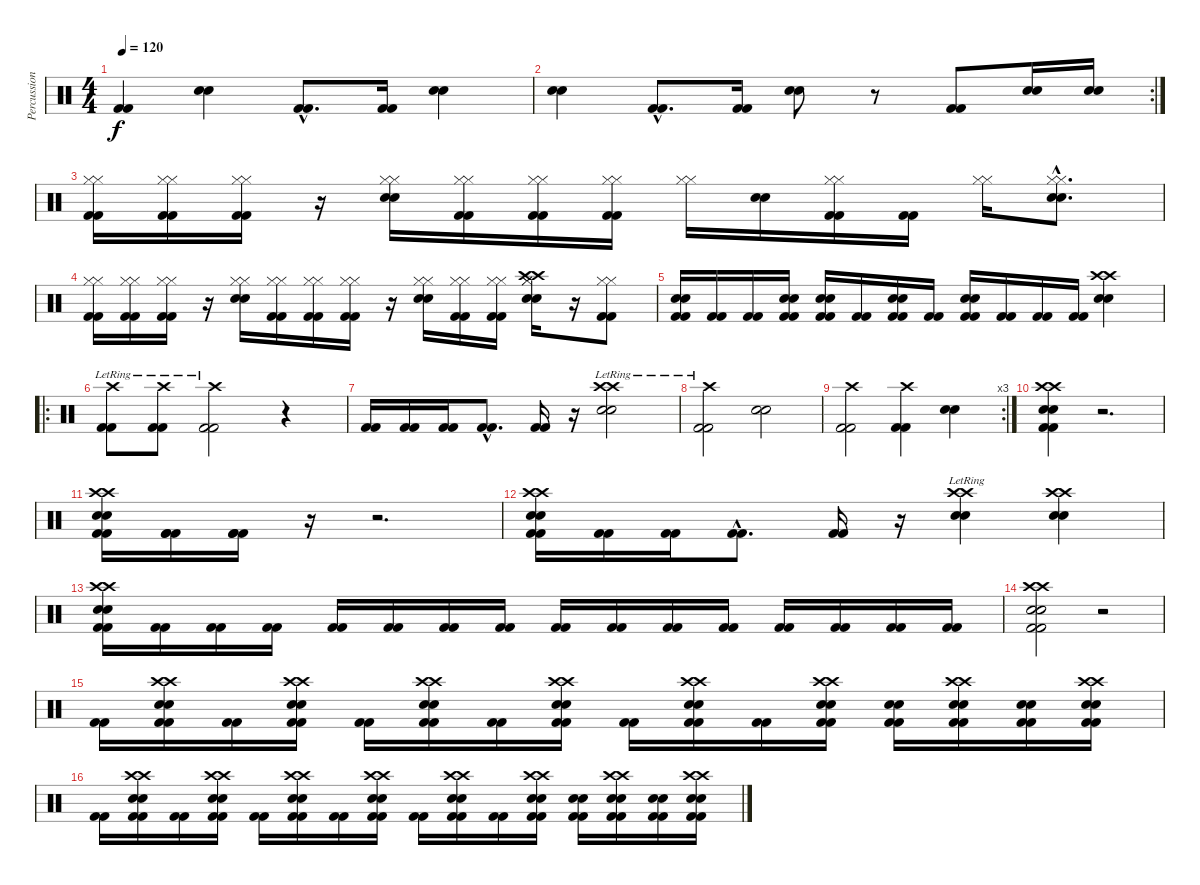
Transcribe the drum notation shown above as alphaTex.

\track ("Percussions" "Percussion") {instrument percussion}
\staff {score}
\articulation defaults
\ts (4 4)
\tempo 120
\clef neutral
\ks c
("Kick (hit) 2" "Kick (hit) 2").4{dy f} ("Electric Snare (hit)" "Electric Snare (hit)").4 ("Kick (hit) 2"{hac} "Kick (hit) 2"{hac}).8{d} ("Kick (hit) 2" "Kick (hit) 2").16 ("Electric Snare (hit)" "Electric Snare (hit)").4 |
\rc 2
("Electric Snare (hit)" "Electric Snare (hit)").4 ("Kick (hit) 2"{hac} "Kick (hit) 2"{hac}).8{d} ("Kick (hit) 2" "Kick (hit) 2").16 ("Electric Snare (hit)" "Electric Snare (hit)").8 r.8 ("Kick (hit) 2" "Kick (hit) 2").8 ("Electric Snare (hit)" "Electric Snare (hit)").16 ("Electric Snare (hit)" "Electric Snare (hit)").16 |
("Kick (hit) 2" "Kick (hit) 2" "Hi-Hat (closed)" "Hi-Hat (closed)").16 ("Kick (hit) 2" "Kick (hit) 2" "Hi-Hat (closed)" "Hi-Hat (closed)").16 ("Kick (hit) 2" "Kick (hit) 2" "Hi-Hat (closed)" "Hi-Hat (closed)").16 r.16 ("Electric Snare (hit)" "Electric Snare (hit)" "Hi-Hat (closed)" "Hi-Hat (closed)").16 ("Kick (hit) 2" "Kick (hit) 2" "Hi-Hat (closed)" "Hi-Hat (closed)").16 ("Kick (hit) 2" "Kick (hit) 2" "Hi-Hat (closed)" "Hi-Hat (closed)").16 ("Kick (hit) 2" "Kick (hit) 2" "Hi-Hat (closed)" "Hi-Hat (closed)").16 ("Hi-Hat (closed)" "Hi-Hat (closed)").16 ("Electric Snare (hit)" "Electric Snare (hit)").16 ("Kick (hit) 2" "Kick (hit) 2" "Hi-Hat (closed)" "Hi-Hat (closed)").16 ("Kick (hit) 2" "Kick (hit) 2").16 ("Hi-Hat (closed)" "Hi-Hat (closed)").16 ("Electric Snare (hit)"{hac} "Electric Snare (hit)"{hac} "Hi-Hat (closed)"{hac} "Hi-Hat (closed)"{hac}).8{d} |
("Kick (hit) 2" "Kick (hit) 2" "Hi-Hat (closed)" "Hi-Hat (closed)").16 ("Kick (hit) 2" "Kick (hit) 2" "Hi-Hat (closed)" "Hi-Hat (closed)").16 ("Kick (hit) 2" "Kick (hit) 2" "Hi-Hat (closed)" "Hi-Hat (closed)").16 r.16 ("Electric Snare (hit)" "Electric Snare (hit)" "Hi-Hat (closed)" "Hi-Hat (closed)").16 ("Kick (hit) 2" "Kick (hit) 2" "Hi-Hat (closed)" "Hi-Hat (closed)").16 ("Kick (hit) 2" "Kick (hit) 2" "Hi-Hat (closed)" "Hi-Hat (closed)").16 ("Kick (hit) 2" "Kick (hit) 2" "Hi-Hat (closed)" "Hi-Hat (closed)").16 r.16 ("Electric Snare (hit)" "Electric Snare (hit)" "Hi-Hat (closed)" "Hi-Hat (closed)").16 ("Kick (hit) 2" "Kick (hit) 2" "Hi-Hat (closed)" "Hi-Hat (closed)").16 ("Kick (hit) 2" "Kick (hit) 2" "Hi-Hat (closed)" "Hi-Hat (closed)").16 ("Electric Snare (hit)" "Electric Snare (hit)" "Crash high (hit)" "Crash high (hit)" "Hi-Hat (closed)" "Hi-Hat (closed)").16 r.16 ("Kick (hit) 2" "Kick (hit) 2" "Hi-Hat (closed)" "Hi-Hat (closed)").8 |
("Kick (hit) 2" "Kick (hit) 2" "Electric Snare (hit)" "Electric Snare (hit)").16 ("Kick (hit) 2" "Kick (hit) 2").16 ("Kick (hit) 2" "Kick (hit) 2").16 ("Kick (hit) 2" "Kick (hit) 2" "Electric Snare (hit)" "Electric Snare (hit)").16 ("Kick (hit) 2" "Kick (hit) 2" "Electric Snare (hit)" "Electric Snare (hit)").16 ("Kick (hit) 2" "Kick (hit) 2").16 ("Kick (hit) 2" "Kick (hit) 2" "Electric Snare (hit)" "Electric Snare (hit)").16 ("Kick (hit) 2" "Kick (hit) 2").16 ("Kick (hit) 2" "Kick (hit) 2" "Electric Snare (hit)" "Electric Snare (hit)").16 ("Kick (hit) 2" "Kick (hit) 2").16 ("Kick (hit) 2" "Kick (hit) 2").16 ("Kick (hit) 2" "Kick (hit) 2").16 ("Electric Snare (hit)" "Electric Snare (hit)" "Crash high (hit)" "Crash high (hit)").4 |
\ro
("Crash high (hit)"{lr} "Kick (hit) 2" "Kick (hit) 2").8 ("Crash high (hit)"{lr} "Kick (hit) 2" "Kick (hit) 2").8 ("Crash high (hit)"{lr} "Kick (hit) 2" "Kick (hit) 2").2 r.4 |
("Kick (hit) 2" "Kick (hit) 2").16 ("Kick (hit) 2" "Kick (hit) 2").16 ("Kick (hit) 2" "Kick (hit) 2").16 ("Kick (hit) 2"{hac} "Kick (hit) 2"{hac}).8{d} ("Kick (hit) 2" "Kick (hit) 2").16 r.16 ("Electric Snare (hit)" "Electric Snare (hit)" "Crash high (hit)"{lr} "Crash high (hit)"{lr}).2 |
("Crash high (hit)"{lr} "Kick (hit) 2" "Kick (hit) 2").2 ("Electric Snare (hit)" "Electric Snare (hit)").2 |
\rc 3
("Crash high (hit)" "Kick (hit) 2" "Kick (hit) 2").2 ("Crash high (hit)" "Kick (hit) 2" "Kick (hit) 2").4 ("Electric Snare (hit)" "Electric Snare (hit)").4 |
("Kick (hit) 2" "Kick (hit) 2" "Crash high (hit)" "Crash high (hit)" "Electric Snare (hit)" "Electric Snare (hit)").4 r.2{d} |
("Kick (hit) 2" "Kick (hit) 2" "Electric Snare (hit)" "Electric Snare (hit)" "Crash high (hit)" "Crash high (hit)").16 ("Kick (hit) 2" "Kick (hit) 2" "Kick (hit) 2").16 ("Kick (hit) 2" "Kick (hit) 2" "Kick (hit) 2").16 r.16 r.2{d} |
("Kick (hit) 2" "Kick (hit) 2" "Electric Snare (hit)" "Electric Snare (hit)" "Crash high (hit)" "Crash high (hit)").16 ("Kick (hit) 2" "Kick (hit) 2").16 ("Kick (hit) 2" "Kick (hit) 2").16 ("Kick (hit) 2"{hac} "Kick (hit) 2"{hac}).8{d} ("Kick (hit) 2" "Kick (hit) 2").16 r.16 ("Electric Snare (hit)" "Electric Snare (hit)" "Crash high (hit)"{lr} "Crash high (hit)"{lr}).4 ("Electric Snare (hit)" "Electric Snare (hit)" "Crash high (hit)" "Crash high (hit)").4 |
("Kick (hit) 2" "Kick (hit) 2" "Electric Snare (hit)" "Electric Snare (hit)" "Crash high (hit)" "Crash high (hit)").16 ("Kick (hit) 2" "Kick (hit) 2").16 ("Kick (hit) 2" "Kick (hit) 2").16 ("Kick (hit) 2" "Kick (hit) 2").16 ("Kick (hit) 2" "Kick (hit) 2").16 ("Kick (hit) 2" "Kick (hit) 2").16 ("Kick (hit) 2" "Kick (hit) 2").16 ("Kick (hit) 2" "Kick (hit) 2").16 ("Kick (hit) 2" "Kick (hit) 2").16 ("Kick (hit) 2" "Kick (hit) 2").16 ("Kick (hit) 2" "Kick (hit) 2").16 ("Kick (hit) 2" "Kick (hit) 2").16 ("Kick (hit) 2" "Kick (hit) 2").16 ("Kick (hit) 2" "Kick (hit) 2").16 ("Kick (hit) 2" "Kick (hit) 2").16 ("Kick (hit) 2" "Kick (hit) 2").16 |
("Kick (hit) 2" "Kick (hit) 2" "Electric Snare (hit)" "Electric Snare (hit)" "Crash high (hit)" "Crash high (hit)").2 r.2 |
("Kick (hit) 2" "Kick (hit) 2").16 ("Kick (hit) 2" "Kick (hit) 2" "Electric Snare (hit)" "Electric Snare (hit)" "Crash high (hit)" "Crash high (hit)").16 ("Kick (hit) 2" "Kick (hit) 2").16 ("Kick (hit) 2" "Kick (hit) 2" "Electric Snare (hit)" "Electric Snare (hit)" "Crash high (hit)" "Crash high (hit)").16 ("Kick (hit) 2" "Kick (hit) 2").16 ("Kick (hit) 2" "Kick (hit) 2" "Electric Snare (hit)" "Electric Snare (hit)" "Crash high (hit)" "Crash high (hit)").16 ("Kick (hit) 2" "Kick (hit) 2").16 ("Kick (hit) 2" "Kick (hit) 2" "Electric Snare (hit)" "Electric Snare (hit)" "Crash high (hit)" "Crash high (hit)").16 ("Kick (hit) 2" "Kick (hit) 2").16 ("Kick (hit) 2" "Kick (hit) 2" "Electric Snare (hit)" "Electric Snare (hit)" "Crash high (hit)" "Crash high (hit)").16 ("Kick (hit) 2" "Kick (hit) 2").16 ("Kick (hit) 2" "Kick (hit) 2" "Electric Snare (hit)" "Electric Snare (hit)" "Crash high (hit)" "Crash high (hit)").16 ("Kick (hit) 2" "Kick (hit) 2" "Electric Snare (hit)" "Electric Snare (hit)").16 ("Kick (hit) 2" "Kick (hit) 2" "Electric Snare (hit)" "Electric Snare (hit)" "Crash high (hit)" "Crash high (hit)").16 ("Kick (hit) 2" "Kick (hit) 2" "Electric Snare (hit)" "Electric Snare (hit)").16 ("Kick (hit) 2" "Kick (hit) 2" "Electric Snare (hit)" "Electric Snare (hit)" "Crash high (hit)" "Crash high (hit)").16 |
("Kick (hit) 2" "Kick (hit) 2").16 ("Kick (hit) 2" "Kick (hit) 2" "Electric Snare (hit)" "Electric Snare (hit)" "Crash high (hit)" "Crash high (hit)").16 ("Kick (hit) 2" "Kick (hit) 2").16 ("Kick (hit) 2" "Kick (hit) 2" "Electric Snare (hit)" "Electric Snare (hit)" "Crash high (hit)" "Crash high (hit)").16 ("Kick (hit) 2" "Kick (hit) 2").16 ("Kick (hit) 2" "Kick (hit) 2" "Electric Snare (hit)" "Electric Snare (hit)" "Crash high (hit)" "Crash high (hit)").16 ("Kick (hit) 2" "Kick (hit) 2").16 ("Kick (hit) 2" "Kick (hit) 2" "Electric Snare (hit)" "Electric Snare (hit)" "Crash high (hit)" "Crash high (hit)").16 ("Kick (hit) 2" "Kick (hit) 2").16 ("Kick (hit) 2" "Kick (hit) 2" "Electric Snare (hit)" "Electric Snare (hit)" "Crash high (hit)" "Crash high (hit)").16 ("Kick (hit) 2" "Kick (hit) 2").16 ("Kick (hit) 2" "Kick (hit) 2" "Electric Snare (hit)" "Electric Snare (hit)" "Crash high (hit)" "Crash high (hit)").16 ("Kick (hit) 2" "Kick (hit) 2" "Electric Snare (hit)" "Electric Snare (hit)").16 ("Kick (hit) 2" "Kick (hit) 2" "Electric Snare (hit)" "Electric Snare (hit)" "Crash high (hit)" "Crash high (hit)").16 ("Kick (hit) 2" "Kick (hit) 2" "Electric Snare (hit)" "Electric Snare (hit)").16 ("Kick (hit) 2" "Kick (hit) 2" "Electric Snare (hit)" "Electric Snare (hit)" "Crash high (hit)" "Crash high (hit)").16
